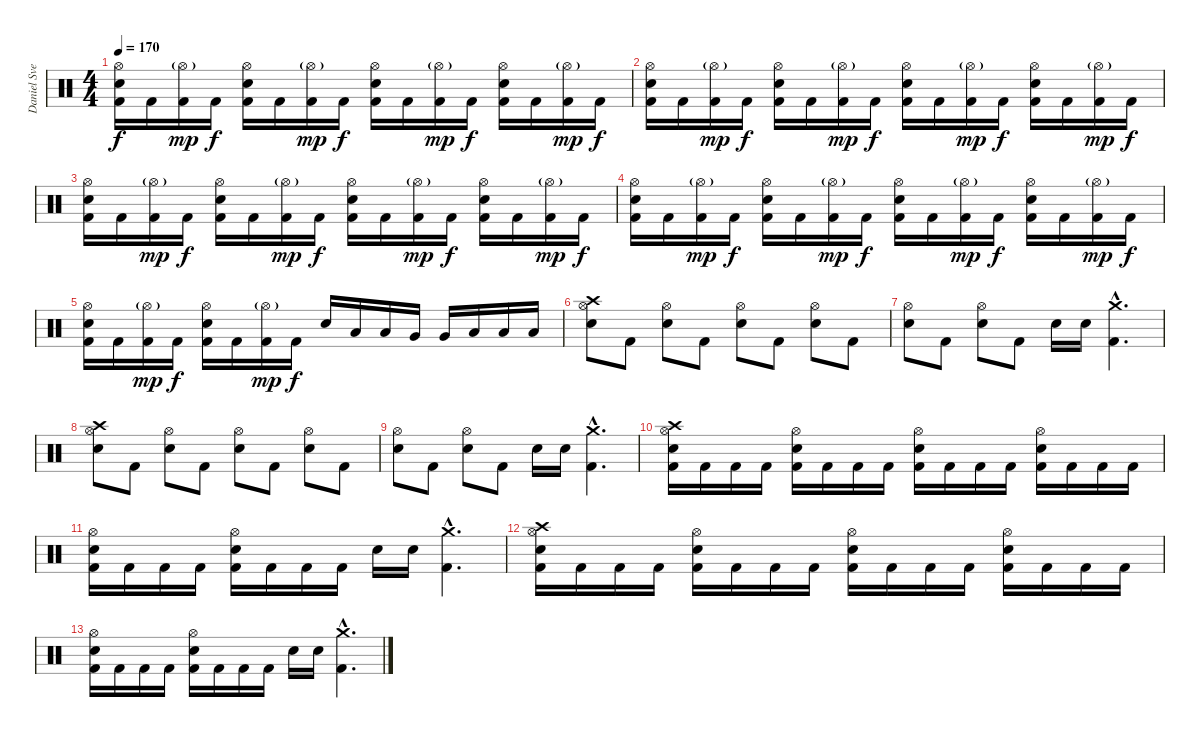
\track ("Daniel Svensson" "Daniel Sve") {instrument percussion}
\staff {score}
\articulation defaults
\ts (4 4)
\tempo 170
\clef neutral
\ks c
("Hi-Hat (open)" "Electric Snare (hit)" "Kick (hit) 2").16{dy f} "Kick (hit) 2".16 ("Hi-Hat (open)"{g} "Kick (hit) 2").16{dy mp} "Kick (hit) 2".16{dy f} ("Hi-Hat (open)" "Electric Snare (hit)" "Kick (hit) 2").16 "Kick (hit) 2".16 ("Hi-Hat (open)"{g} "Kick (hit) 2").16{dy mp} "Kick (hit) 2".16{dy f} ("Hi-Hat (open)" "Electric Snare (hit)" "Kick (hit) 2").16 "Kick (hit) 2".16 ("Hi-Hat (open)"{g} "Kick (hit) 2").16{dy mp} "Kick (hit) 2".16{dy f} ("Hi-Hat (open)" "Electric Snare (hit)" "Kick (hit) 2").16 "Kick (hit) 2".16 ("Hi-Hat (open)"{g} "Kick (hit) 2").16{dy mp} "Kick (hit) 2".16{dy f} |
("Hi-Hat (open)" "Electric Snare (hit)" "Kick (hit) 2").16 "Kick (hit) 2".16 ("Hi-Hat (open)"{g} "Kick (hit) 2").16{dy mp} "Kick (hit) 2".16{dy f} ("Hi-Hat (open)" "Electric Snare (hit)" "Kick (hit) 2").16 "Kick (hit) 2".16 ("Hi-Hat (open)"{g} "Kick (hit) 2").16{dy mp} "Kick (hit) 2".16{dy f} ("Hi-Hat (open)" "Electric Snare (hit)" "Kick (hit) 2").16 "Kick (hit) 2".16 ("Hi-Hat (open)"{g} "Kick (hit) 2").16{dy mp} "Kick (hit) 2".16{dy f} ("Hi-Hat (open)" "Electric Snare (hit)" "Kick (hit) 2").16 "Kick (hit) 2".16 ("Hi-Hat (open)"{g} "Kick (hit) 2").16{dy mp} "Kick (hit) 2".16{dy f} |
("Hi-Hat (open)" "Electric Snare (hit)" "Kick (hit) 2").16 "Kick (hit) 2".16 ("Hi-Hat (open)"{g} "Kick (hit) 2").16{dy mp} "Kick (hit) 2".16{dy f} ("Hi-Hat (open)" "Electric Snare (hit)" "Kick (hit) 2").16 "Kick (hit) 2".16 ("Hi-Hat (open)"{g} "Kick (hit) 2").16{dy mp} "Kick (hit) 2".16{dy f} ("Hi-Hat (open)" "Electric Snare (hit)" "Kick (hit) 2").16 "Kick (hit) 2".16 ("Hi-Hat (open)"{g} "Kick (hit) 2").16{dy mp} "Kick (hit) 2".16{dy f} ("Hi-Hat (open)" "Electric Snare (hit)" "Kick (hit) 2").16 "Kick (hit) 2".16 ("Hi-Hat (open)"{g} "Kick (hit) 2").16{dy mp} "Kick (hit) 2".16{dy f} |
("Hi-Hat (open)" "Electric Snare (hit)" "Kick (hit) 2").16 "Kick (hit) 2".16 ("Hi-Hat (open)"{g} "Kick (hit) 2").16{dy mp} "Kick (hit) 2".16{dy f} ("Hi-Hat (open)" "Electric Snare (hit)" "Kick (hit) 2").16 "Kick (hit) 2".16 ("Hi-Hat (open)"{g} "Kick (hit) 2").16{dy mp} "Kick (hit) 2".16{dy f} ("Hi-Hat (open)" "Electric Snare (hit)" "Kick (hit) 2").16 "Kick (hit) 2".16 ("Hi-Hat (open)"{g} "Kick (hit) 2").16{dy mp} "Kick (hit) 2".16{dy f} ("Hi-Hat (open)" "Electric Snare (hit)" "Kick (hit) 2").16 "Kick (hit) 2".16 ("Hi-Hat (open)"{g} "Kick (hit) 2").16{dy mp} "Kick (hit) 2".16{dy f} |
("Hi-Hat (open)" "Electric Snare (hit)" "Kick (hit) 2").16 "Kick (hit) 2".16 ("Hi-Hat (open)"{g} "Kick (hit) 2").16{dy mp} "Kick (hit) 2".16{dy f} ("Hi-Hat (open)" "Electric Snare (hit)" "Kick (hit) 2").16 "Kick (hit) 2".16 ("Hi-Hat (open)"{g} "Kick (hit) 2").16{dy mp} "Kick (hit) 2".16{dy f} "Electric Snare (hit)".16 "Low Tom (hit)".16 "Low Tom (hit)".16 "Very Low Tom (hit)".16 "Very Low Tom (hit)".16 "Low Floor Tom (hit)".16 "Low Floor Tom (hit)".16 "Low Floor Tom (hit)".16 |
("Crash high (hit)" "Hi-Hat (open)" "Electric Snare (hit)").8 "Kick (hit) 2".8 ("Hi-Hat (open)" "Electric Snare (hit)").8 "Kick (hit) 2".8 ("Hi-Hat (open)" "Electric Snare (hit)").8 "Kick (hit) 2".8 ("Hi-Hat (open)" "Electric Snare (hit)").8 "Kick (hit) 2".8 |
("Hi-Hat (open)" "Electric Snare (hit)").8 "Kick (hit) 2".8 ("Hi-Hat (open)" "Electric Snare (hit)").8 "Kick (hit) 2".8 "Electric Snare (hit)".16 "Electric Snare (hit)".16 ("Crash medium (hit)"{hac} "Kick (hit) 2"{hac}).4{d} |
("Crash high (hit)" "Hi-Hat (open)" "Electric Snare (hit)").8 "Kick (hit) 2".8 ("Hi-Hat (open)" "Electric Snare (hit)").8 "Kick (hit) 2".8 ("Hi-Hat (open)" "Electric Snare (hit)").8 "Kick (hit) 2".8 ("Hi-Hat (open)" "Electric Snare (hit)").8 "Kick (hit) 2".8 |
("Hi-Hat (open)" "Electric Snare (hit)").8 "Kick (hit) 2".8 ("Hi-Hat (open)" "Electric Snare (hit)").8 "Kick (hit) 2".8 "Electric Snare (hit)".16 "Electric Snare (hit)".16 ("Crash medium (hit)"{hac} "Kick (hit) 2"{hac}).4{d} |
("Crash high (hit)" "Hi-Hat (open)" "Electric Snare (hit)" "Kick (hit) 2").16 "Kick (hit) 2".16 "Kick (hit) 2".16 "Kick (hit) 2".16 ("Hi-Hat (open)" "Electric Snare (hit)" "Kick (hit) 2").16 "Kick (hit) 2".16 "Kick (hit) 2".16 "Kick (hit) 2".16 ("Hi-Hat (open)" "Electric Snare (hit)" "Kick (hit) 2").16 "Kick (hit) 2".16 "Kick (hit) 2".16 "Kick (hit) 2".16 ("Hi-Hat (open)" "Electric Snare (hit)" "Kick (hit) 2").16 "Kick (hit) 2".16 "Kick (hit) 2".16 "Kick (hit) 2".16 |
("Hi-Hat (open)" "Electric Snare (hit)" "Kick (hit) 2").16 "Kick (hit) 2".16 "Kick (hit) 2".16 "Kick (hit) 2".16 ("Hi-Hat (open)" "Electric Snare (hit)" "Kick (hit) 2").16 "Kick (hit) 2".16 "Kick (hit) 2".16 "Kick (hit) 2".16 "Electric Snare (hit)".16 "Electric Snare (hit)".16 ("Crash medium (hit)"{hac} "Kick (hit) 2"{hac}).4{d} |
("Crash high (hit)" "Hi-Hat (open)" "Electric Snare (hit)" "Kick (hit) 2").16 "Kick (hit) 2".16 "Kick (hit) 2".16 "Kick (hit) 2".16 ("Hi-Hat (open)" "Electric Snare (hit)" "Kick (hit) 2").16 "Kick (hit) 2".16 "Kick (hit) 2".16 "Kick (hit) 2".16 ("Hi-Hat (open)" "Electric Snare (hit)" "Kick (hit) 2").16 "Kick (hit) 2".16 "Kick (hit) 2".16 "Kick (hit) 2".16 ("Hi-Hat (open)" "Electric Snare (hit)" "Kick (hit) 2").16 "Kick (hit) 2".16 "Kick (hit) 2".16 "Kick (hit) 2".16 |
("Hi-Hat (open)" "Electric Snare (hit)" "Kick (hit) 2").16 "Kick (hit) 2".16 "Kick (hit) 2".16 "Kick (hit) 2".16 ("Hi-Hat (open)" "Electric Snare (hit)" "Kick (hit) 2").16 "Kick (hit) 2".16 "Kick (hit) 2".16 "Kick (hit) 2".16 "Electric Snare (hit)".16 "Electric Snare (hit)".16 ("Crash medium (hit)"{hac} "Kick (hit) 2"{hac}).4{d}
